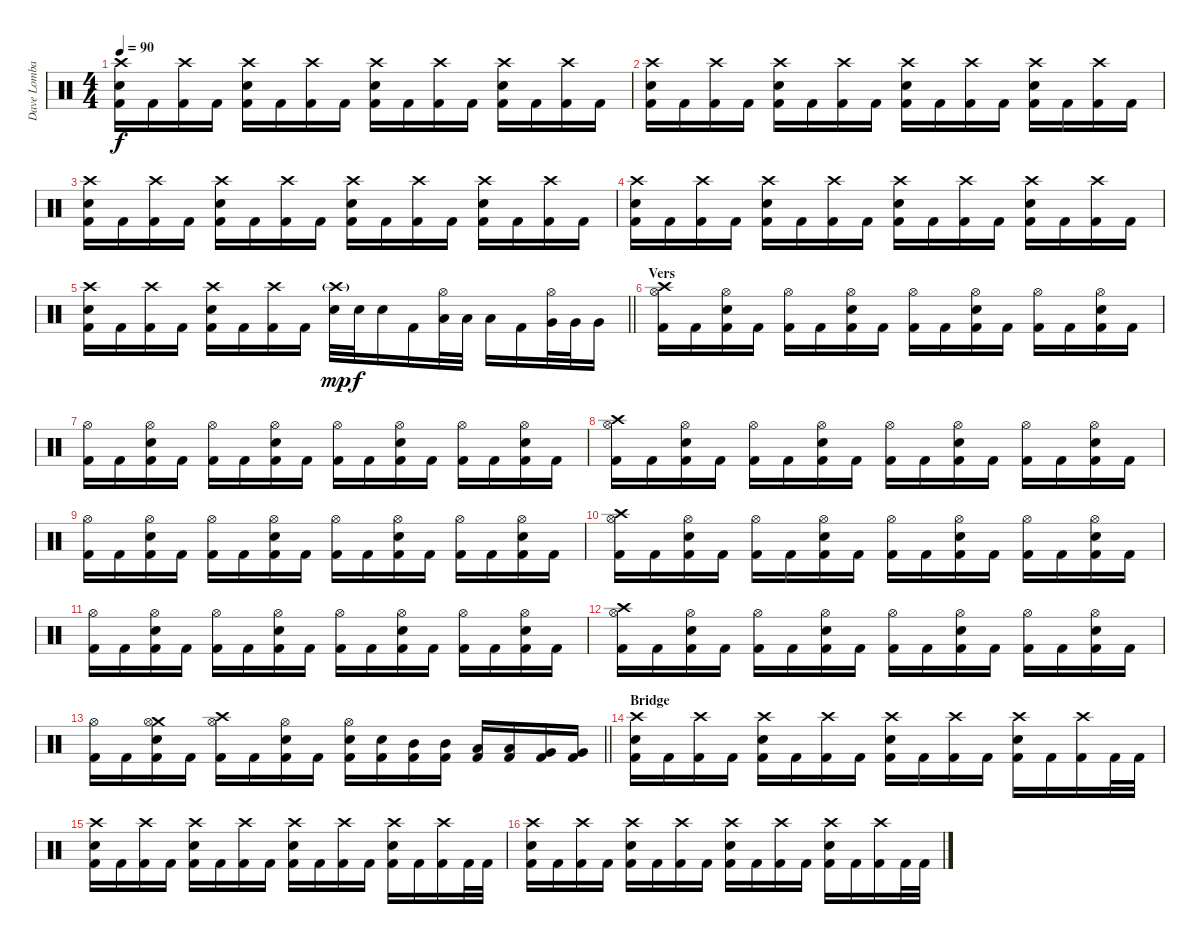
\track ("Dave Lombardo" "Dave Lomba") {instrument percussion}
\staff {score}
\articulation defaults
\ts (4 4)
\tempo 90
\clef neutral
\ks c
("Crash high (hit)" "Snare (hit) 2" "Kick (hit) 2").16{dy f} "Kick (hit) 2".16 ("Crash high (hit)" "Kick (hit) 2").16 "Kick (hit) 2".16 ("Crash high (hit)" "Snare (hit) 2" "Kick (hit) 2").16 "Kick (hit) 2".16 ("Crash high (hit)" "Kick (hit) 2").16 "Kick (hit) 2".16 ("Crash high (hit)" "Snare (hit) 2" "Kick (hit) 2").16 "Kick (hit) 2".16 ("Crash high (hit)" "Kick (hit) 2").16 "Kick (hit) 2".16 ("Crash high (hit)" "Snare (hit) 2" "Kick (hit) 2").16 "Kick (hit) 2".16 ("Crash high (hit)" "Kick (hit) 2").16 "Kick (hit) 2".16 |
("Crash high (hit)" "Snare (hit) 2" "Kick (hit) 2").16 "Kick (hit) 2".16 ("Crash high (hit)" "Kick (hit) 2").16 "Kick (hit) 2".16 ("Crash high (hit)" "Snare (hit) 2" "Kick (hit) 2").16 "Kick (hit) 2".16 ("Crash high (hit)" "Kick (hit) 2").16 "Kick (hit) 2".16 ("Crash high (hit)" "Snare (hit) 2" "Kick (hit) 2").16 "Kick (hit) 2".16 ("Crash high (hit)" "Kick (hit) 2").16 "Kick (hit) 2".16 ("Crash high (hit)" "Snare (hit) 2" "Kick (hit) 2").16 "Kick (hit) 2".16 ("Crash high (hit)" "Kick (hit) 2").16 "Kick (hit) 2".16 |
("Crash high (hit)" "Snare (hit) 2" "Kick (hit) 2").16 "Kick (hit) 2".16 ("Crash high (hit)" "Kick (hit) 2").16 "Kick (hit) 2".16 ("Crash high (hit)" "Snare (hit) 2" "Kick (hit) 2").16 "Kick (hit) 2".16 ("Crash high (hit)" "Kick (hit) 2").16 "Kick (hit) 2".16 ("Crash high (hit)" "Snare (hit) 2" "Kick (hit) 2").16 "Kick (hit) 2".16 ("Crash high (hit)" "Kick (hit) 2").16 "Kick (hit) 2".16 ("Crash high (hit)" "Snare (hit) 2" "Kick (hit) 2").16 "Kick (hit) 2".16 ("Crash high (hit)" "Kick (hit) 2").16 "Kick (hit) 2".16 |
("Crash high (hit)" "Snare (hit) 2" "Kick (hit) 2").16 "Kick (hit) 2".16 ("Crash high (hit)" "Kick (hit) 2").16 "Kick (hit) 2".16 ("Crash high (hit)" "Snare (hit) 2" "Kick (hit) 2").16 "Kick (hit) 2".16 ("Crash high (hit)" "Kick (hit) 2").16 "Kick (hit) 2".16 ("Crash high (hit)" "Snare (hit) 2" "Kick (hit) 2").16 "Kick (hit) 2".16 ("Crash high (hit)" "Kick (hit) 2").16 "Kick (hit) 2".16 ("Crash high (hit)" "Snare (hit) 2" "Kick (hit) 2").16 "Kick (hit) 2".16 ("Crash high (hit)" "Kick (hit) 2").16 "Kick (hit) 2".16 |
\barLineRight lightlight
("Crash high (hit)" "Snare (hit) 2" "Kick (hit) 2").16 "Kick (hit) 2".16 ("Crash high (hit)" "Kick (hit) 2").16 "Kick (hit) 2".16 ("Crash high (hit)" "Snare (hit) 2" "Kick (hit) 2").16 "Kick (hit) 2".16 ("Crash high (hit)" "Kick (hit) 2").16 "Kick (hit) 2".16 ("Crash high (hit)"{g} "Snare (hit) 2").32{dy mp} "Snare (hit) 2".32{dy f} "Snare (hit) 2".16 "Kick (hit) 2".16 ("Hi-Hat (open)" "Low Tom (hit)").32 "Low Tom (hit)".32 "Low Tom (hit)".16 "Kick (hit) 2".16 ("Hi-Hat (open)" "Very Low Tom (hit)").32 "Very Low Tom (hit)".32 "Very Low Tom (hit)".16 |
\section ("" "Vers")
("Crash high (hit)" "Hi-Hat (open)" "Kick (hit) 2").16 "Kick (hit) 2".16 ("Hi-Hat (open)" "Snare (hit) 2" "Kick (hit) 2").16 "Kick (hit) 2".16 ("Hi-Hat (open)" "Kick (hit) 2").16 "Kick (hit) 2".16 ("Hi-Hat (open)" "Snare (hit) 2" "Kick (hit) 2").16 "Kick (hit) 2".16 ("Hi-Hat (open)" "Kick (hit) 2").16 "Kick (hit) 2".16 ("Hi-Hat (open)" "Snare (hit) 2" "Kick (hit) 2").16 "Kick (hit) 2".16 ("Hi-Hat (open)" "Kick (hit) 2").16 "Kick (hit) 2".16 ("Hi-Hat (open)" "Snare (hit) 2" "Kick (hit) 2").16 "Kick (hit) 2".16 |
("Hi-Hat (open)" "Kick (hit) 2").16 "Kick (hit) 2".16 ("Hi-Hat (open)" "Snare (hit) 2" "Kick (hit) 2").16 "Kick (hit) 2".16 ("Hi-Hat (open)" "Kick (hit) 2").16 "Kick (hit) 2".16 ("Hi-Hat (open)" "Snare (hit) 2" "Kick (hit) 2").16 "Kick (hit) 2".16 ("Hi-Hat (open)" "Kick (hit) 2").16 "Kick (hit) 2".16 ("Hi-Hat (open)" "Snare (hit) 2" "Kick (hit) 2").16 "Kick (hit) 2".16 ("Hi-Hat (open)" "Kick (hit) 2").16 "Kick (hit) 2".16 ("Hi-Hat (open)" "Snare (hit) 2" "Kick (hit) 2").16 "Kick (hit) 2".16 |
("Crash high (hit)" "Hi-Hat (open)" "Kick (hit) 2").16 "Kick (hit) 2".16 ("Hi-Hat (open)" "Snare (hit) 2" "Kick (hit) 2").16 "Kick (hit) 2".16 ("Hi-Hat (open)" "Kick (hit) 2").16 "Kick (hit) 2".16 ("Hi-Hat (open)" "Snare (hit) 2" "Kick (hit) 2").16 "Kick (hit) 2".16 ("Hi-Hat (open)" "Kick (hit) 2").16 "Kick (hit) 2".16 ("Hi-Hat (open)" "Snare (hit) 2" "Kick (hit) 2").16 "Kick (hit) 2".16 ("Hi-Hat (open)" "Kick (hit) 2").16 "Kick (hit) 2".16 ("Hi-Hat (open)" "Snare (hit) 2" "Kick (hit) 2").16 "Kick (hit) 2".16 |
("Hi-Hat (open)" "Kick (hit) 2").16 "Kick (hit) 2".16 ("Hi-Hat (open)" "Snare (hit) 2" "Kick (hit) 2").16 "Kick (hit) 2".16 ("Hi-Hat (open)" "Kick (hit) 2").16 "Kick (hit) 2".16 ("Hi-Hat (open)" "Snare (hit) 2" "Kick (hit) 2").16 "Kick (hit) 2".16 ("Hi-Hat (open)" "Kick (hit) 2").16 "Kick (hit) 2".16 ("Hi-Hat (open)" "Snare (hit) 2" "Kick (hit) 2").16 "Kick (hit) 2".16 ("Hi-Hat (open)" "Kick (hit) 2").16 "Kick (hit) 2".16 ("Hi-Hat (open)" "Snare (hit) 2" "Kick (hit) 2").16 "Kick (hit) 2".16 |
("Crash high (hit)" "Hi-Hat (open)" "Kick (hit) 2").16 "Kick (hit) 2".16 ("Hi-Hat (open)" "Snare (hit) 2" "Kick (hit) 2").16 "Kick (hit) 2".16 ("Hi-Hat (open)" "Kick (hit) 2").16 "Kick (hit) 2".16 ("Hi-Hat (open)" "Snare (hit) 2" "Kick (hit) 2").16 "Kick (hit) 2".16 ("Hi-Hat (open)" "Kick (hit) 2").16 "Kick (hit) 2".16 ("Hi-Hat (open)" "Snare (hit) 2" "Kick (hit) 2").16 "Kick (hit) 2".16 ("Hi-Hat (open)" "Kick (hit) 2").16 "Kick (hit) 2".16 ("Hi-Hat (open)" "Snare (hit) 2" "Kick (hit) 2").16 "Kick (hit) 2".16 |
("Hi-Hat (open)" "Kick (hit) 2").16 "Kick (hit) 2".16 ("Hi-Hat (open)" "Snare (hit) 2" "Kick (hit) 2").16 "Kick (hit) 2".16 ("Hi-Hat (open)" "Kick (hit) 2").16 "Kick (hit) 2".16 ("Hi-Hat (open)" "Snare (hit) 2" "Kick (hit) 2").16 "Kick (hit) 2".16 ("Hi-Hat (open)" "Kick (hit) 2").16 "Kick (hit) 2".16 ("Hi-Hat (open)" "Snare (hit) 2" "Kick (hit) 2").16 "Kick (hit) 2".16 ("Hi-Hat (open)" "Kick (hit) 2").16 "Kick (hit) 2".16 ("Hi-Hat (open)" "Snare (hit) 2" "Kick (hit) 2").16 "Kick (hit) 2".16 |
("Crash high (hit)" "Hi-Hat (open)" "Kick (hit) 2").16 "Kick (hit) 2".16 ("Hi-Hat (open)" "Snare (hit) 2" "Kick (hit) 2").16 "Kick (hit) 2".16 ("Hi-Hat (open)" "Kick (hit) 2").16 "Kick (hit) 2".16 ("Hi-Hat (open)" "Snare (hit) 2" "Kick (hit) 2").16 "Kick (hit) 2".16 ("Hi-Hat (open)" "Kick (hit) 2").16 "Kick (hit) 2".16 ("Hi-Hat (open)" "Snare (hit) 2" "Kick (hit) 2").16 "Kick (hit) 2".16 ("Hi-Hat (open)" "Kick (hit) 2").16 "Kick (hit) 2".16 ("Hi-Hat (open)" "Snare (hit) 2" "Kick (hit) 2").16 "Kick (hit) 2".16 |
\barLineRight lightlight
("Hi-Hat (open)" "Kick (hit) 2").16 "Kick (hit) 2".16 ("Crash medium (hit)" "Hi-Hat (open)" "Snare (hit) 2" "Kick (hit) 2").16 "Kick (hit) 2".16 ("Crash high (hit)" "Hi-Hat (open)" "Kick (hit) 2").16 "Kick (hit) 2".16 ("Hi-Hat (open)" "Snare (hit) 2" "Kick (hit) 2").16 "Kick (hit) 2".16 ("Hi-Hat (open)" "Snare (hit) 2" "Kick (hit) 2").16 ("Snare (hit) 2" "Kick (hit) 2").16 ("Mid Tom (hit)" "Kick (hit) 2").16 ("Mid Tom (hit)" "Kick (hit) 2").16 ("Low Tom (hit)" "Kick (hit) 2").16 ("Low Tom (hit)" "Kick (hit) 2").16 ("Very Low Tom (hit)" "Kick (hit) 2").16 ("Very Low Tom (hit)" "Kick (hit) 2").16 |
\section ("" "Bridge")
("Crash high (hit)" "Snare (hit) 2" "Kick (hit) 2").16 "Kick (hit) 2".16 ("Crash high (hit)" "Kick (hit) 2").16 "Kick (hit) 2".16 ("Crash high (hit)" "Snare (hit) 2" "Kick (hit) 2").16 "Kick (hit) 2".16 ("Crash high (hit)" "Kick (hit) 2").16 "Kick (hit) 2".16 ("Crash high (hit)" "Snare (hit) 2" "Kick (hit) 2").16 "Kick (hit) 2".16 ("Crash high (hit)" "Kick (hit) 2").16 "Kick (hit) 2".16 ("Crash high (hit)" "Snare (hit) 2" "Kick (hit) 2").16 "Kick (hit) 2".16 ("Crash high (hit)" "Kick (hit) 2").16 "Kick (hit) 2".32 "Kick (hit) 2".32 |
("Crash high (hit)" "Snare (hit) 2" "Kick (hit) 2").16 "Kick (hit) 2".16 ("Crash high (hit)" "Kick (hit) 2").16 "Kick (hit) 2".16 ("Crash high (hit)" "Snare (hit) 2" "Kick (hit) 2").16 "Kick (hit) 2".16 ("Crash high (hit)" "Kick (hit) 2").16 "Kick (hit) 2".16 ("Crash high (hit)" "Snare (hit) 2" "Kick (hit) 2").16 "Kick (hit) 2".16 ("Crash high (hit)" "Kick (hit) 2").16 "Kick (hit) 2".16 ("Crash high (hit)" "Snare (hit) 2" "Kick (hit) 2").16 "Kick (hit) 2".16 ("Crash high (hit)" "Kick (hit) 2").16 "Kick (hit) 2".32 "Kick (hit) 2".32 |
("Crash high (hit)" "Snare (hit) 2" "Kick (hit) 2").16 "Kick (hit) 2".16 ("Crash high (hit)" "Kick (hit) 2").16 "Kick (hit) 2".16 ("Crash high (hit)" "Snare (hit) 2" "Kick (hit) 2").16 "Kick (hit) 2".16 ("Crash high (hit)" "Kick (hit) 2").16 "Kick (hit) 2".16 ("Crash high (hit)" "Snare (hit) 2" "Kick (hit) 2").16 "Kick (hit) 2".16 ("Crash high (hit)" "Kick (hit) 2").16 "Kick (hit) 2".16 ("Crash high (hit)" "Snare (hit) 2" "Kick (hit) 2").16 "Kick (hit) 2".16 ("Crash high (hit)" "Kick (hit) 2").16 "Kick (hit) 2".32 "Kick (hit) 2".32
